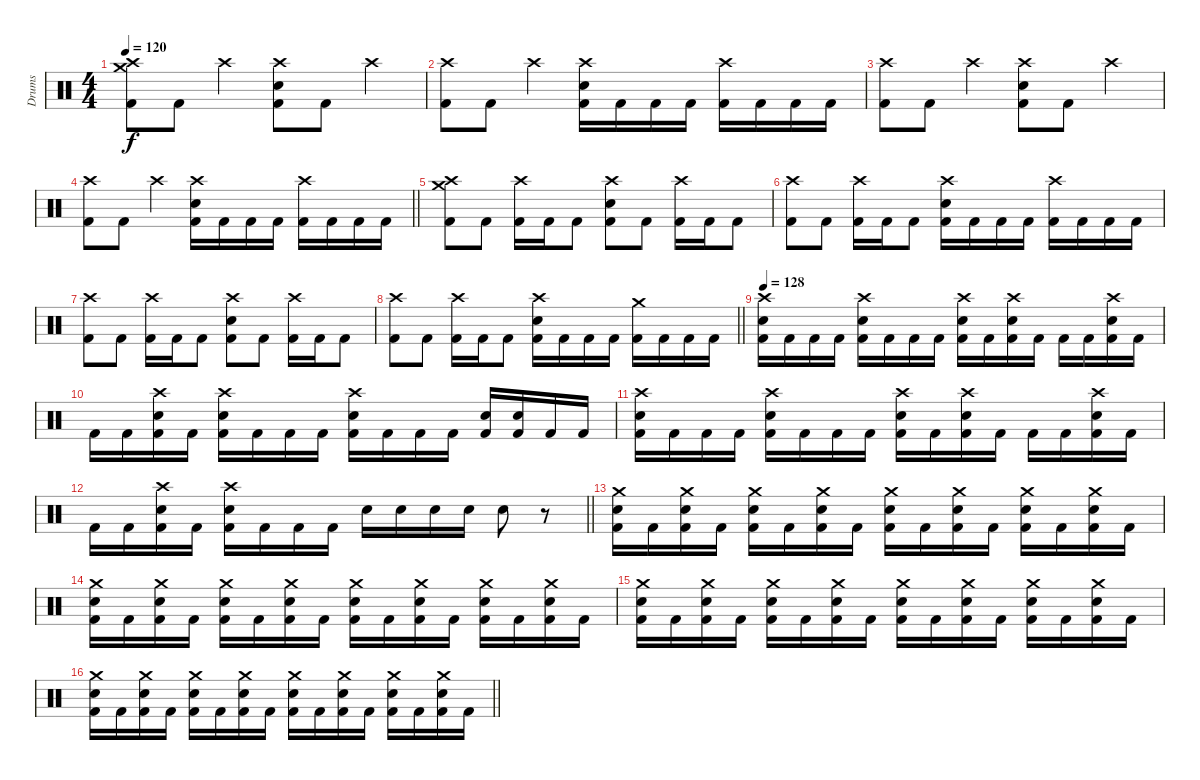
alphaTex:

\track ("Drums" "Drums") {instrument percussion}
\staff {score}
\articulation defaults
\ts (4 4)
\tempo 120
\clef neutral
\ks c
("Crash high (hit)" "Crash medium (hit)" "Kick (hit) 2").8{dy f} "Kick (hit) 2".8 "Crash high (hit)".4 ("Crash high (hit)" "Electric Snare (hit)" "Kick (hit) 2").8 "Kick (hit) 2".8 "Crash high (hit)".4 |
("Crash high (hit)" "Kick (hit) 2").8 "Kick (hit) 2".8 "Crash high (hit)".4 ("Crash high (hit)" "Electric Snare (hit)" "Kick (hit) 2").16 "Kick (hit) 2".16 "Kick (hit) 2".16 "Kick (hit) 2".16 ("Crash high (hit)" "Kick (hit) 2").16 "Kick (hit) 2".16 "Kick (hit) 2".16 "Kick (hit) 2".16 |
("Crash high (hit)" "Kick (hit) 2").8 "Kick (hit) 2".8 "Crash high (hit)".4 ("Crash high (hit)" "Electric Snare (hit)" "Kick (hit) 2").8 "Kick (hit) 2".8 "Crash high (hit)".4 |
\barLineRight lightlight
("Crash high (hit)" "Kick (hit) 2").8 "Kick (hit) 2".8 "Crash high (hit)".4 ("Crash high (hit)" "Electric Snare (hit)" "Kick (hit) 2").16 "Kick (hit) 2".16 "Kick (hit) 2".16 "Kick (hit) 2".16 ("Crash high (hit)" "Kick (hit) 2").16 "Kick (hit) 2".16 "Kick (hit) 2".16 "Kick (hit) 2".16 |
("Crash high (hit)" "Crash medium (hit)" "Kick (hit) 2").8 "Kick (hit) 2".8 ("Crash high (hit)" "Kick (hit) 2").16 "Kick (hit) 2".16 "Kick (hit) 2".8 ("Crash high (hit)" "Electric Snare (hit)" "Kick (hit) 2").8 "Kick (hit) 2".8 ("Crash high (hit)" "Kick (hit) 2").16 "Kick (hit) 2".16 "Kick (hit) 2".8 |
("Crash high (hit)" "Kick (hit) 2").8 "Kick (hit) 2".8 ("Crash high (hit)" "Kick (hit) 2").16 "Kick (hit) 2".16 "Kick (hit) 2".8 ("Crash high (hit)" "Electric Snare (hit)" "Kick (hit) 2").16 "Kick (hit) 2".16 "Kick (hit) 2".16 "Kick (hit) 2".16 ("Crash high (hit)" "Kick (hit) 2").16 "Kick (hit) 2".16 "Kick (hit) 2".16 "Kick (hit) 2".16 |
("Crash high (hit)" "Kick (hit) 2").8 "Kick (hit) 2".8 ("Crash high (hit)" "Kick (hit) 2").16 "Kick (hit) 2".16 "Kick (hit) 2".8 ("Crash high (hit)" "Electric Snare (hit)" "Kick (hit) 2").8 "Kick (hit) 2".8 ("Crash high (hit)" "Kick (hit) 2").16 "Kick (hit) 2".16 "Kick (hit) 2".8 |
\barLineRight lightlight
("Crash high (hit)" "Kick (hit) 2").8 "Kick (hit) 2".8 ("Crash high (hit)" "Kick (hit) 2").16 "Kick (hit) 2".16 "Kick (hit) 2".8 ("Crash high (hit)" "Electric Snare (hit)" "Kick (hit) 2").16 "Kick (hit) 2".16 "Kick (hit) 2".16 "Kick (hit) 2".16 ("Crash medium (hit)" "Kick (hit) 2").16 "Kick (hit) 2".16 "Kick (hit) 2".16 "Kick (hit) 2".16 |
\tempo 128
("Crash high (hit)" "Electric Snare (hit)" "Kick (hit) 2").16 "Kick (hit) 2".16 "Kick (hit) 2".16 "Kick (hit) 2".16 ("Crash high (hit)" "Electric Snare (hit)" "Kick (hit) 2").16 "Kick (hit) 2".16 "Kick (hit) 2".16 "Kick (hit) 2".16 ("Crash high (hit)" "Electric Snare (hit)" "Kick (hit) 2").16 "Kick (hit) 2".16 ("Crash high (hit)" "Electric Snare (hit)" "Kick (hit) 2").16 "Kick (hit) 2".16 "Kick (hit) 2".16 "Kick (hit) 2".16 ("Crash high (hit)" "Electric Snare (hit)" "Kick (hit) 2").16 "Kick (hit) 2".16 |
"Kick (hit) 2".16 "Kick (hit) 2".16 ("Crash high (hit)" "Electric Snare (hit)" "Kick (hit) 2").16 "Kick (hit) 2".16 ("Crash high (hit)" "Electric Snare (hit)" "Kick (hit) 2").16 "Kick (hit) 2".16 "Kick (hit) 2".16 "Kick (hit) 2".16 ("Crash high (hit)" "Electric Snare (hit)" "Kick (hit) 2").16 "Kick (hit) 2".16 "Kick (hit) 2".16 "Kick (hit) 2".16 ("Electric Snare (hit)" "Kick (hit) 2").16 ("Electric Snare (hit)" "Kick (hit) 2").16 "Kick (hit) 2".16 "Kick (hit) 2".16 |
("Crash high (hit)" "Electric Snare (hit)" "Kick (hit) 2").16 "Kick (hit) 2".16 "Kick (hit) 2".16 "Kick (hit) 2".16 ("Crash high (hit)" "Electric Snare (hit)" "Kick (hit) 2").16 "Kick (hit) 2".16 "Kick (hit) 2".16 "Kick (hit) 2".16 ("Crash high (hit)" "Electric Snare (hit)" "Kick (hit) 2").16 "Kick (hit) 2".16 ("Crash high (hit)" "Electric Snare (hit)" "Kick (hit) 2").16 "Kick (hit) 2".16 "Kick (hit) 2".16 "Kick (hit) 2".16 ("Crash high (hit)" "Electric Snare (hit)" "Kick (hit) 2").16 "Kick (hit) 2".16 |
\barLineRight lightlight "Kick (hit) 2".16 "Kick (hit) 2".16
("Crash high (hit)" "Electric Snare (hit)" "Kick (hit) 2").16 "Kick (hit) 2".16 ("Crash high (hit)" "Electric Snare (hit)" "Kick (hit) 2").16 "Kick (hit) 2".16 "Kick (hit) 2".16 "Kick (hit) 2".16 "Electric Snare (hit)".16 "Electric Snare (hit)".16 "Electric Snare (hit)".16 "Electric Snare (hit)".16 "Electric Snare (hit)".8 r.8 |
("Crash medium (hit)" "Electric Snare (hit)" "Kick (hit) 2").16 "Kick (hit) 2".16 ("Crash medium (hit)" "Electric Snare (hit)" "Kick (hit) 2").16 "Kick (hit) 2".16 ("Crash medium (hit)" "Electric Snare (hit)" "Kick (hit) 2").16 "Kick (hit) 2".16 ("Crash medium (hit)" "Electric Snare (hit)" "Kick (hit) 2").16 "Kick (hit) 2".16 ("Crash medium (hit)" "Electric Snare (hit)" "Kick (hit) 2").16 "Kick (hit) 2".16 ("Crash medium (hit)" "Electric Snare (hit)" "Kick (hit) 2").16 "Kick (hit) 2".16 ("Crash medium (hit)" "Electric Snare (hit)" "Kick (hit) 2").16 "Kick (hit) 2".16 ("Crash medium (hit)" "Electric Snare (hit)" "Kick (hit) 2").16 "Kick (hit) 2".16 |
("Crash medium (hit)" "Electric Snare (hit)" "Kick (hit) 2").16 "Kick (hit) 2".16 ("Crash medium (hit)" "Electric Snare (hit)" "Kick (hit) 2").16 "Kick (hit) 2".16 ("Crash medium (hit)" "Electric Snare (hit)" "Kick (hit) 2").16 "Kick (hit) 2".16 ("Crash medium (hit)" "Electric Snare (hit)" "Kick (hit) 2").16 "Kick (hit) 2".16 ("Crash medium (hit)" "Electric Snare (hit)" "Kick (hit) 2").16 "Kick (hit) 2".16 ("Crash medium (hit)" "Electric Snare (hit)" "Kick (hit) 2").16 "Kick (hit) 2".16 ("Crash medium (hit)" "Electric Snare (hit)" "Kick (hit) 2").16 "Kick (hit) 2".16 ("Crash medium (hit)" "Electric Snare (hit)" "Kick (hit) 2").16 "Kick (hit) 2".16 |
("Crash medium (hit)" "Electric Snare (hit)" "Kick (hit) 2").16 "Kick (hit) 2".16 ("Crash medium (hit)" "Electric Snare (hit)" "Kick (hit) 2").16 "Kick (hit) 2".16 ("Crash medium (hit)" "Electric Snare (hit)" "Kick (hit) 2").16 "Kick (hit) 2".16 ("Crash medium (hit)" "Electric Snare (hit)" "Kick (hit) 2").16 "Kick (hit) 2".16 ("Crash medium (hit)" "Electric Snare (hit)" "Kick (hit) 2").16 "Kick (hit) 2".16 ("Crash medium (hit)" "Electric Snare (hit)" "Kick (hit) 2").16 "Kick (hit) 2".16 ("Crash medium (hit)" "Electric Snare (hit)" "Kick (hit) 2").16 "Kick (hit) 2".16 ("Crash medium (hit)" "Electric Snare (hit)" "Kick (hit) 2").16 "Kick (hit) 2".16 |
\barLineRight lightlight
("Crash medium (hit)" "Electric Snare (hit)" "Kick (hit) 2").16 "Kick (hit) 2".16 ("Crash medium (hit)" "Electric Snare (hit)" "Kick (hit) 2").16 "Kick (hit) 2".16 ("Crash medium (hit)" "Electric Snare (hit)" "Kick (hit) 2").16 "Kick (hit) 2".16 ("Crash medium (hit)" "Electric Snare (hit)" "Kick (hit) 2").16 "Kick (hit) 2".16 ("Crash medium (hit)" "Electric Snare (hit)" "Kick (hit) 2").16 "Kick (hit) 2".16 ("Crash medium (hit)" "Electric Snare (hit)" "Kick (hit) 2").16 "Kick (hit) 2".16 ("Crash medium (hit)" "Electric Snare (hit)" "Kick (hit) 2").16 "Kick (hit) 2".16 ("Crash medium (hit)" "Electric Snare (hit)" "Kick (hit) 2").16 "Kick (hit) 2".16
